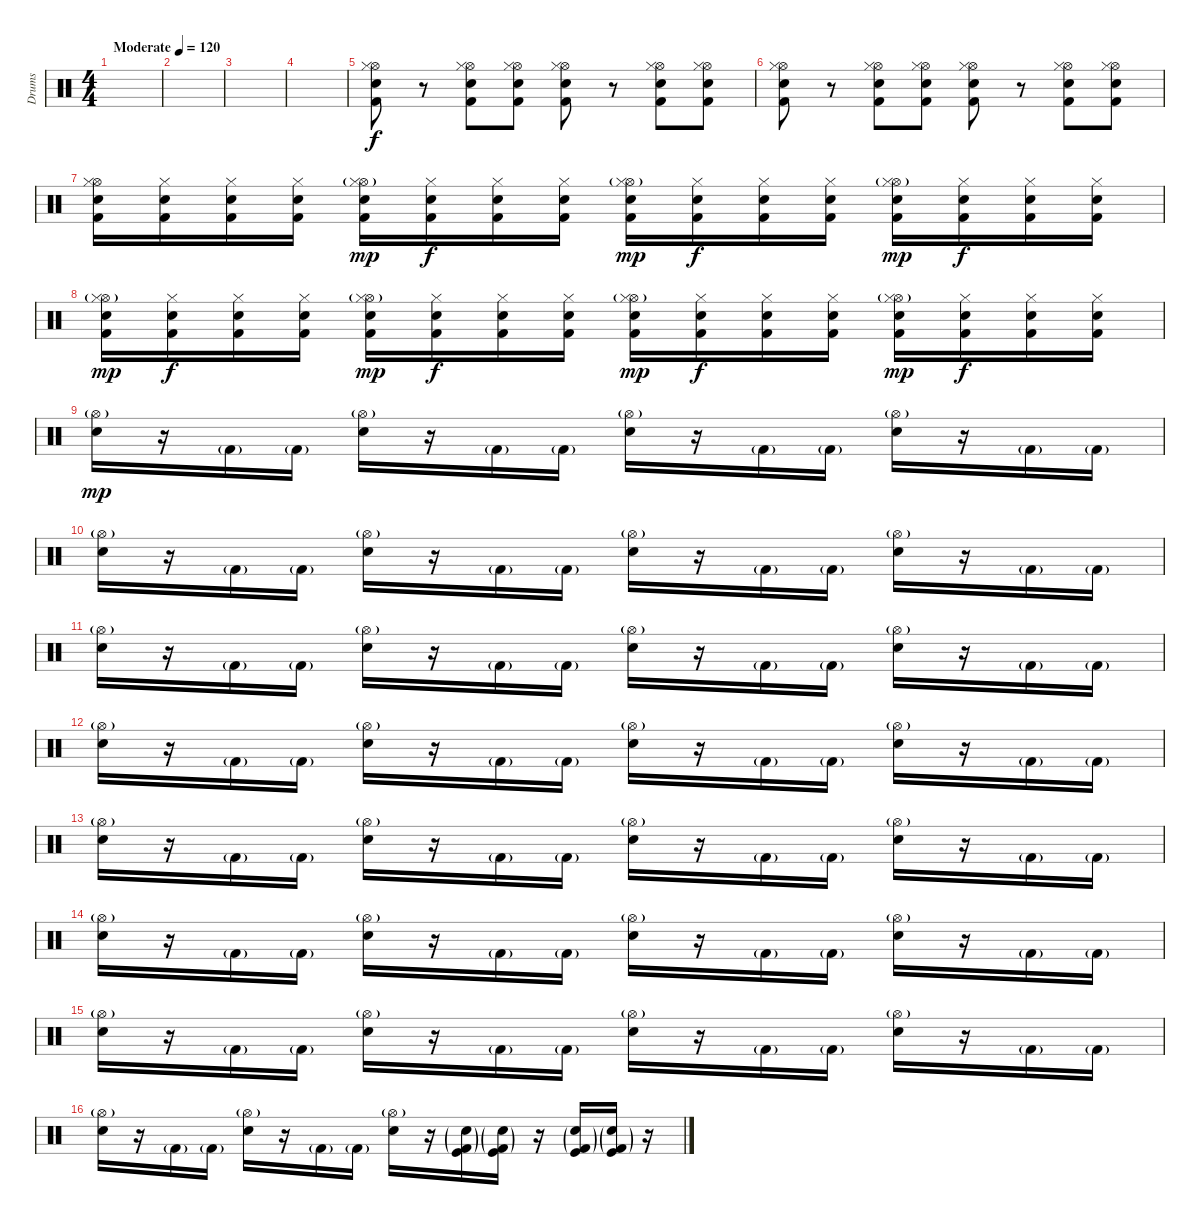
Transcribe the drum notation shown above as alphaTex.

\track ("Drums" "Drums") {instrument percussion}
\staff {score}
\articulation defaults
\ts (4 4)
\tempo (120 "Moderate")
\clef neutral
\ks c
|
|
|
|
("Kick (hit) 2" "Snare (hit) 2" "Hi-Hat (open)" "Hi-Hat (closed)").8 r.8 ("Kick (hit) 2" "Snare (hit) 2" "Hi-Hat (open)" "Hi-Hat (closed)").8 ("Kick (hit) 2" "Snare (hit) 2" "Hi-Hat (open)" "Hi-Hat (closed)").8 ("Kick (hit) 2" "Snare (hit) 2" "Hi-Hat (open)" "Hi-Hat (closed)").8 r.8 ("Kick (hit) 2" "Snare (hit) 2" "Hi-Hat (open)" "Hi-Hat (closed)").8 ("Kick (hit) 2" "Snare (hit) 2" "Hi-Hat (open)" "Hi-Hat (closed)").8 |
("Kick (hit) 2" "Snare (hit) 2" "Hi-Hat (open)" "Hi-Hat (closed)").8 r.8 ("Kick (hit) 2" "Snare (hit) 2" "Hi-Hat (open)" "Hi-Hat (closed)").8 ("Kick (hit) 2" "Snare (hit) 2" "Hi-Hat (open)" "Hi-Hat (closed)").8 ("Kick (hit) 2" "Snare (hit) 2" "Hi-Hat (open)" "Hi-Hat (closed)").8 r.8 ("Kick (hit) 2" "Snare (hit) 2" "Hi-Hat (open)" "Hi-Hat (closed)").8 ("Kick (hit) 2" "Snare (hit) 2" "Hi-Hat (open)" "Hi-Hat (closed)").8 |
("Kick (hit) 2" "Snare (hit) 2" "Hi-Hat (open)" "Hi-Hat (closed)").16 ("Kick (hit) 2" "Snare (hit) 2" "Hi-Hat (closed)").16 ("Kick (hit) 2" "Snare (hit) 2" "Hi-Hat (closed)").16 ("Kick (hit) 2" "Snare (hit) 2" "Hi-Hat (closed)").16 ("Kick (hit) 2" "Snare (hit) 2" "Hi-Hat (open)"{g} "Hi-Hat (closed)").16{dy mp} ("Kick (hit) 2" "Snare (hit) 2" "Hi-Hat (closed)").16{dy f} ("Kick (hit) 2" "Snare (hit) 2" "Hi-Hat (closed)").16 ("Kick (hit) 2" "Snare (hit) 2" "Hi-Hat (closed)").16 ("Kick (hit) 2" "Snare (hit) 2" "Hi-Hat (open)"{g} "Hi-Hat (closed)").16{dy mp} ("Kick (hit) 2" "Snare (hit) 2" "Hi-Hat (closed)").16{dy f} ("Kick (hit) 2" "Snare (hit) 2" "Hi-Hat (closed)").16 ("Kick (hit) 2" "Snare (hit) 2" "Hi-Hat (closed)").16 ("Kick (hit) 2" "Snare (hit) 2" "Hi-Hat (open)"{g} "Hi-Hat (closed)").16{dy mp} ("Kick (hit) 2" "Snare (hit) 2" "Hi-Hat (closed)").16{dy f} ("Kick (hit) 2" "Snare (hit) 2" "Hi-Hat (closed)").16 ("Kick (hit) 2" "Snare (hit) 2" "Hi-Hat (closed)").16 |
("Kick (hit) 2" "Snare (hit) 2" "Hi-Hat (open)"{g} "Hi-Hat (closed)").16{dy mp} ("Kick (hit) 2" "Snare (hit) 2" "Hi-Hat (closed)").16{dy f} ("Kick (hit) 2" "Snare (hit) 2" "Hi-Hat (closed)").16 ("Kick (hit) 2" "Snare (hit) 2" "Hi-Hat (closed)").16 ("Kick (hit) 2" "Snare (hit) 2" "Hi-Hat (open)"{g} "Hi-Hat (closed)").16{dy mp} ("Kick (hit) 2" "Snare (hit) 2" "Hi-Hat (closed)").16{dy f} ("Kick (hit) 2" "Snare (hit) 2" "Hi-Hat (closed)").16 ("Kick (hit) 2" "Snare (hit) 2" "Hi-Hat (closed)").16 ("Kick (hit) 2" "Snare (hit) 2" "Hi-Hat (open)"{g} "Hi-Hat (closed)").16{dy mp} ("Kick (hit) 2" "Snare (hit) 2" "Hi-Hat (closed)").16{dy f} ("Kick (hit) 2" "Snare (hit) 2" "Hi-Hat (closed)").16 ("Kick (hit) 2" "Snare (hit) 2" "Hi-Hat (closed)").16 ("Kick (hit) 2" "Snare (hit) 2" "Hi-Hat (open)"{g} "Hi-Hat (closed)").16{dy mp} ("Kick (hit) 2" "Snare (hit) 2" "Hi-Hat (closed)").16{dy f} ("Kick (hit) 2" "Snare (hit) 2" "Hi-Hat (closed)").16 ("Kick (hit) 2" "Snare (hit) 2" "Hi-Hat (closed)").16 |
("Hi-Hat (open)"{g} "Electric Snare (hit)").16{dy mp} r.16 "Kick (hit) 2"{g}.16 "Kick (hit) 2"{g}.16 ("Hi-Hat (open)"{g} "Electric Snare (hit)").16 r.16 "Kick (hit) 2"{g}.16 "Kick (hit) 2"{g}.16 ("Hi-Hat (open)"{g} "Electric Snare (hit)").16 r.16 "Kick (hit) 2"{g}.16 "Kick (hit) 2"{g}.16 ("Hi-Hat (open)"{g} "Electric Snare (hit)").16 r.16 "Kick (hit) 2"{g}.16 "Kick (hit) 2"{g}.16 |
("Hi-Hat (open)"{g} "Electric Snare (hit)").16 r.16 "Kick (hit) 2"{g}.16 "Kick (hit) 2"{g}.16 ("Hi-Hat (open)"{g} "Electric Snare (hit)").16 r.16 "Kick (hit) 2"{g}.16 "Kick (hit) 2"{g}.16 ("Hi-Hat (open)"{g} "Electric Snare (hit)").16 r.16 "Kick (hit) 2"{g}.16 "Kick (hit) 2"{g}.16 ("Hi-Hat (open)"{g} "Electric Snare (hit)").16 r.16 "Kick (hit) 2"{g}.16 "Kick (hit) 2"{g}.16 |
("Hi-Hat (open)"{g} "Electric Snare (hit)").16 r.16 "Kick (hit) 2"{g}.16 "Kick (hit) 2"{g}.16 ("Hi-Hat (open)"{g} "Electric Snare (hit)").16 r.16 "Kick (hit) 2"{g}.16 "Kick (hit) 2"{g}.16 ("Hi-Hat (open)"{g} "Electric Snare (hit)").16 r.16 "Kick (hit) 2"{g}.16 "Kick (hit) 2"{g}.16 ("Hi-Hat (open)"{g} "Electric Snare (hit)").16 r.16 "Kick (hit) 2"{g}.16 "Kick (hit) 2"{g}.16 |
("Hi-Hat (open)"{g} "Electric Snare (hit)").16 r.16 "Kick (hit) 2"{g}.16 "Kick (hit) 2"{g}.16 ("Hi-Hat (open)"{g} "Electric Snare (hit)").16 r.16 "Kick (hit) 2"{g}.16 "Kick (hit) 2"{g}.16 ("Hi-Hat (open)"{g} "Electric Snare (hit)").16 r.16 "Kick (hit) 2"{g}.16 "Kick (hit) 2"{g}.16 ("Hi-Hat (open)"{g} "Electric Snare (hit)").16 r.16 "Kick (hit) 2"{g}.16 "Kick (hit) 2"{g}.16 |
("Hi-Hat (open)"{g} "Electric Snare (hit)").16 r.16 "Kick (hit) 2"{g}.16 "Kick (hit) 2"{g}.16 ("Hi-Hat (open)"{g} "Electric Snare (hit)").16 r.16 "Kick (hit) 2"{g}.16 "Kick (hit) 2"{g}.16 ("Hi-Hat (open)"{g} "Electric Snare (hit)").16 r.16 "Kick (hit) 2"{g}.16 "Kick (hit) 2"{g}.16 ("Hi-Hat (open)"{g} "Electric Snare (hit)").16 r.16 "Kick (hit) 2"{g}.16 "Kick (hit) 2"{g}.16 |
("Hi-Hat (open)"{g} "Electric Snare (hit)").16 r.16 "Kick (hit) 2"{g}.16 "Kick (hit) 2"{g}.16 ("Hi-Hat (open)"{g} "Electric Snare (hit)").16 r.16 "Kick (hit) 2"{g}.16 "Kick (hit) 2"{g}.16 ("Hi-Hat (open)"{g} "Electric Snare (hit)").16 r.16 "Kick (hit) 2"{g}.16 "Kick (hit) 2"{g}.16 ("Hi-Hat (open)"{g} "Electric Snare (hit)").16 r.16 "Kick (hit) 2"{g}.16 "Kick (hit) 2"{g}.16 |
("Hi-Hat (open)"{g} "Electric Snare (hit)").16 r.16 "Kick (hit) 2"{g}.16 "Kick (hit) 2"{g}.16 ("Hi-Hat (open)"{g} "Electric Snare (hit)").16 r.16 "Kick (hit) 2"{g}.16 "Kick (hit) 2"{g}.16 ("Hi-Hat (open)"{g} "Electric Snare (hit)").16 r.16 "Kick (hit) 2"{g}.16 "Kick (hit) 2"{g}.16 ("Hi-Hat (open)"{g} "Electric Snare (hit)").16 r.16 "Kick (hit) 2"{g}.16 "Kick (hit) 2"{g}.16 |
("Hi-Hat (open)"{g} "Electric Snare (hit)").16 r.16 "Kick (hit) 2"{g}.16 "Kick (hit) 2"{g}.16 ("Hi-Hat (open)"{g} "Electric Snare (hit)").16 r.16 "Kick (hit) 2"{g}.16 "Kick (hit) 2"{g}.16 ("Hi-Hat (open)"{g} "Electric Snare (hit)").16 r.16 ("Snare (hit) 2"{g} "Kick (hit) 2"{g} "Kick (hit)").16 ("Snare (hit) 2"{g} "Kick (hit) 2"{g} "Kick (hit)").16 r.16 ("Snare (hit) 2"{g} "Kick (hit) 2"{g} "Kick (hit)").16 ("Snare (hit) 2"{g} "Kick (hit) 2"{g} "Kick (hit)").16 r.16
